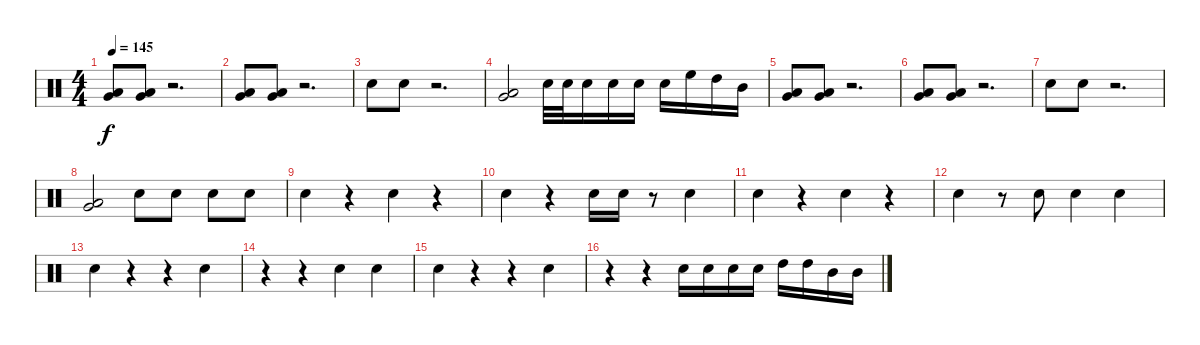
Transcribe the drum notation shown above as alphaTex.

\track "" {instrument percussion}
\staff {score}
\articulation defaults
\ts (4 4)
\tempo 145
\clef neutral
\ks c
("Low Tom (hit)" "Very Low Tom (hit)").8{dy f} ("Low Tom (hit)" "Very Low Tom (hit)").8 r.2{d} |
("Low Tom (hit)" "Very Low Tom (hit)").8 ("Low Tom (hit)" "Very Low Tom (hit)").8 r.2{d} |
"Electric Snare (hit)".8 "Electric Snare (hit)".8 r.2{d} |
("Low Tom (hit)" "Very Low Tom (hit)").2 "Electric Snare (hit)".32 "Electric Snare (hit)".32 "Electric Snare (hit)".16 "Electric Snare (hit)".16 "Electric Snare (hit)".16 "Electric Snare (hit)".16 "High Floor Tom (hit)".16 "High Tom (hit)".16 "Mid Tom (hit)".16 |
("Low Tom (hit)" "Very Low Tom (hit)").8 ("Low Tom (hit)" "Very Low Tom (hit)").8 r.2{d} |
("Low Tom (hit)" "Very Low Tom (hit)").8 ("Low Tom (hit)" "Very Low Tom (hit)").8 r.2{d} |
"Electric Snare (hit)".8 "Electric Snare (hit)".8 r.2{d} |
("Low Tom (hit)" "Very Low Tom (hit)").2 "Electric Snare (hit)".8 "Electric Snare (hit)".8 "Electric Snare (hit)".8 "Electric Snare (hit)".8 |
"Electric Snare (hit)".4 r.4 "Electric Snare (hit)".4 r.4 |
"Electric Snare (hit)".4 r.4 "Electric Snare (hit)".16 "Electric Snare (hit)".16 r.8 "Electric Snare (hit)".4 |
"Electric Snare (hit)".4 r.4 "Electric Snare (hit)".4 r.4 |
"Electric Snare (hit)".4 r.8 "Electric Snare (hit)".8 "Electric Snare (hit)".4 "Electric Snare (hit)".4 |
"Electric Snare (hit)".4 r.4 r.4 "Electric Snare (hit)".4 |
r.4 r.4 "Electric Snare (hit)".4 "Electric Snare (hit)".4 |
"Electric Snare (hit)".4 r.4 r.4 "Electric Snare (hit)".4 |
r.4 r.4 "Electric Snare (hit)".16 "Electric Snare (hit)".16 "Electric Snare (hit)".16 "Electric Snare (hit)".16 "High Tom (hit)".16 "High Tom (hit)".16 "Mid Tom (hit)".16 "Mid Tom (hit)".16
